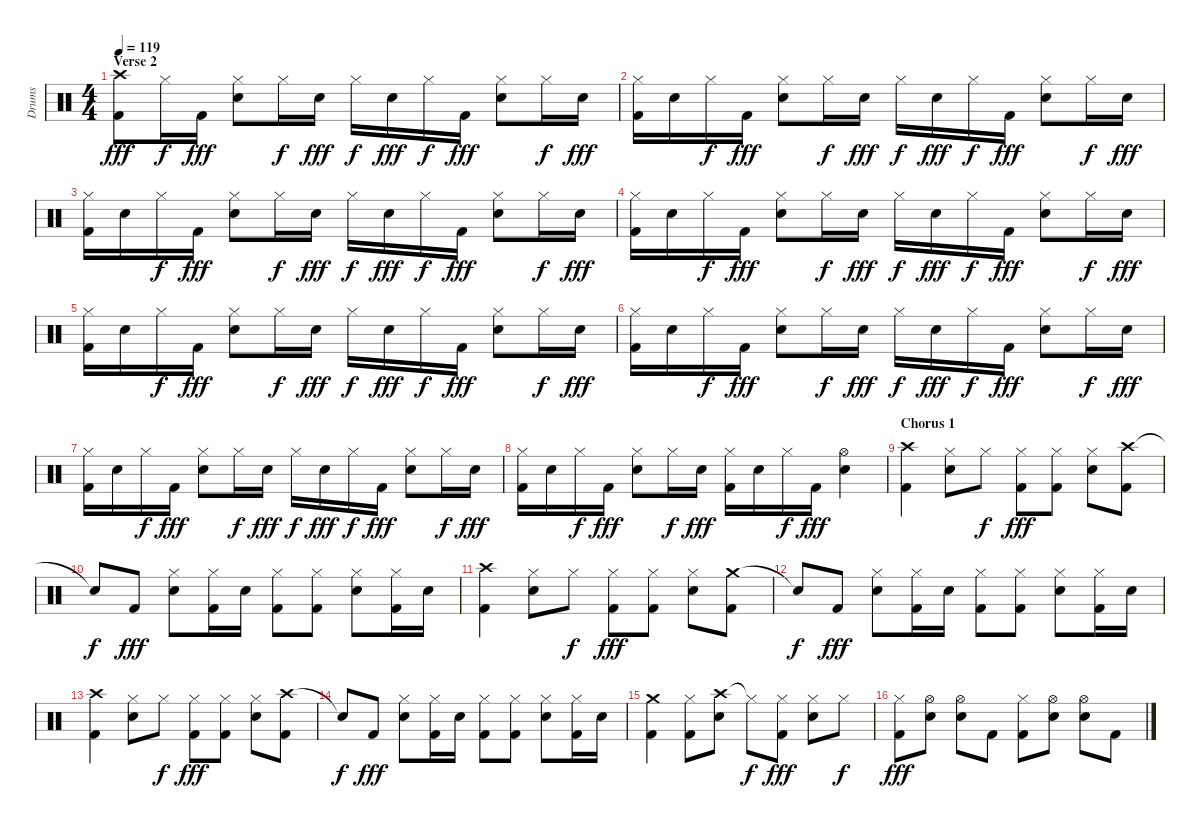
\track ("Drums" "Drums") {instrument percussion}
\staff {score}
\articulation defaults
\ts (4 4)
\section ("" "Verse 2")
\tempo 119
\clef neutral
\ks c
("Crash high (hit)" "Kick (hit) 2").8{dy fff} "Hi-Hat (closed)".16{dy f} "Kick (hit) 2".16{dy fff} ("Hi-Hat (closed)" "Electric Snare (hit)").8 "Hi-Hat (closed)".16{dy f} "Electric Snare (hit)".16{dy fff} "Hi-Hat (closed)".16{dy f} "Electric Snare (hit)".16{dy fff} "Hi-Hat (closed)".16{dy f} "Kick (hit) 2".16{dy fff} ("Hi-Hat (closed)" "Electric Snare (hit)").8 "Hi-Hat (closed)".16{dy f} "Electric Snare (hit)".16{dy fff} |
("Hi-Hat (closed)" "Kick (hit) 2").16 "Electric Snare (hit)".16 "Hi-Hat (closed)".16{dy f} "Kick (hit) 2".16{dy fff} ("Hi-Hat (closed)" "Electric Snare (hit)").8 "Hi-Hat (closed)".16{dy f} "Electric Snare (hit)".16{dy fff} "Hi-Hat (closed)".16{dy f} "Electric Snare (hit)".16{dy fff} "Hi-Hat (closed)".16{dy f} "Kick (hit) 2".16{dy fff} ("Hi-Hat (closed)" "Electric Snare (hit)").8 "Hi-Hat (closed)".16{dy f} "Electric Snare (hit)".16{dy fff} |
("Hi-Hat (closed)" "Kick (hit) 2").16 "Electric Snare (hit)".16 "Hi-Hat (closed)".16{dy f} "Kick (hit) 2".16{dy fff} ("Hi-Hat (closed)" "Electric Snare (hit)").8 "Hi-Hat (closed)".16{dy f} "Electric Snare (hit)".16{dy fff} "Hi-Hat (closed)".16{dy f} "Electric Snare (hit)".16{dy fff} "Hi-Hat (closed)".16{dy f} "Kick (hit) 2".16{dy fff} ("Hi-Hat (closed)" "Electric Snare (hit)").8 "Hi-Hat (closed)".16{dy f} "Electric Snare (hit)".16{dy fff} |
("Hi-Hat (closed)" "Kick (hit) 2").16 "Electric Snare (hit)".16 "Hi-Hat (closed)".16{dy f} "Kick (hit) 2".16{dy fff} ("Hi-Hat (closed)" "Electric Snare (hit)").8 "Hi-Hat (closed)".16{dy f} "Electric Snare (hit)".16{dy fff} "Hi-Hat (closed)".16{dy f} "Electric Snare (hit)".16{dy fff} "Hi-Hat (closed)".16{dy f} "Kick (hit) 2".16{dy fff} ("Hi-Hat (closed)" "Electric Snare (hit)").8 "Hi-Hat (closed)".16{dy f} "Electric Snare (hit)".16{dy fff} |
("Hi-Hat (closed)" "Kick (hit) 2").16 "Electric Snare (hit)".16 "Hi-Hat (closed)".16{dy f} "Kick (hit) 2".16{dy fff} ("Hi-Hat (closed)" "Electric Snare (hit)").8 "Hi-Hat (closed)".16{dy f} "Electric Snare (hit)".16{dy fff} "Hi-Hat (closed)".16{dy f} "Electric Snare (hit)".16{dy fff} "Hi-Hat (closed)".16{dy f} "Kick (hit) 2".16{dy fff} ("Hi-Hat (closed)" "Electric Snare (hit)").8 "Hi-Hat (closed)".16{dy f} "Electric Snare (hit)".16{dy fff} |
("Hi-Hat (closed)" "Kick (hit) 2").16 "Electric Snare (hit)".16 "Hi-Hat (closed)".16{dy f} "Kick (hit) 2".16{dy fff} ("Hi-Hat (closed)" "Electric Snare (hit)").8 "Hi-Hat (closed)".16{dy f} "Electric Snare (hit)".16{dy fff} "Hi-Hat (closed)".16{dy f} "Electric Snare (hit)".16{dy fff} "Hi-Hat (closed)".16{dy f} "Kick (hit) 2".16{dy fff} ("Hi-Hat (closed)" "Electric Snare (hit)").8 "Hi-Hat (closed)".16{dy f} "Electric Snare (hit)".16{dy fff} |
("Hi-Hat (closed)" "Kick (hit) 2").16 "Electric Snare (hit)".16 "Hi-Hat (closed)".16{dy f} "Kick (hit) 2".16{dy fff} ("Hi-Hat (closed)" "Electric Snare (hit)").8 "Hi-Hat (closed)".16{dy f} "Electric Snare (hit)".16{dy fff} "Hi-Hat (closed)".16{dy f} "Electric Snare (hit)".16{dy fff} "Hi-Hat (closed)".16{dy f} "Kick (hit) 2".16{dy fff} ("Hi-Hat (closed)" "Electric Snare (hit)").8 "Hi-Hat (closed)".16{dy f} "Electric Snare (hit)".16{dy fff} |
("Hi-Hat (closed)" "Kick (hit) 2").16 "Electric Snare (hit)".16 "Hi-Hat (closed)".16{dy f} "Kick (hit) 2".16{dy fff} ("Hi-Hat (closed)" "Electric Snare (hit)").8 "Hi-Hat (closed)".16{dy f} "Electric Snare (hit)".16{dy fff} ("Hi-Hat (closed)" "Kick (hit) 2").16 "Electric Snare (hit)".16 "Hi-Hat (closed)".16{dy f} "Kick (hit) 2".16{dy fff} ("Hi-Hat (open)" "Electric Snare (hit)").4 |
\section ("" "Chorus 1")
("Crash high (hit)" "Kick (hit) 2").4 ("Hi-Hat (closed)" "Electric Snare (hit)").8 "Hi-Hat (closed)".8{dy f} ("Hi-Hat (closed)" "Kick (hit) 2").8{dy fff} ("Hi-Hat (closed)" "Kick (hit) 2").8 ("Hi-Hat (closed)" "Electric Snare (hit)").8 ("Crash high (hit)" "Kick (hit) 2").8 |
"Snare (hit)"{t}.8{dy f} "Kick (hit) 2".8{dy fff} ("Hi-Hat (closed)" "Electric Snare (hit)").8 ("Hi-Hat (closed)" "Kick (hit) 2").16 "Electric Snare (hit)".16 ("Hi-Hat (closed)" "Kick (hit) 2").8 ("Hi-Hat (closed)" "Kick (hit) 2").8 ("Hi-Hat (closed)" "Electric Snare (hit)").8 ("Hi-Hat (closed)" "Kick (hit) 2").16 "Electric Snare (hit)".16 |
("Crash high (hit)" "Kick (hit) 2").4 ("Hi-Hat (closed)" "Electric Snare (hit)").8 "Hi-Hat (closed)".8{dy f} ("Hi-Hat (closed)" "Kick (hit) 2").8{dy fff} ("Hi-Hat (closed)" "Kick (hit) 2").8 ("Hi-Hat (closed)" "Electric Snare (hit)").8 ("Crash medium (hit)" "Kick (hit) 2").8 |
"Snare (hit)"{t}.8{dy f} "Kick (hit) 2".8{dy fff} ("Hi-Hat (closed)" "Electric Snare (hit)").8 ("Hi-Hat (closed)" "Kick (hit) 2").16 "Electric Snare (hit)".16 ("Hi-Hat (closed)" "Kick (hit) 2").8 ("Hi-Hat (closed)" "Kick (hit) 2").8 ("Hi-Hat (closed)" "Electric Snare (hit)").8 ("Hi-Hat (closed)" "Kick (hit) 2").16 "Electric Snare (hit)".16 |
("Crash high (hit)" "Kick (hit) 2").4 ("Hi-Hat (closed)" "Electric Snare (hit)").8 "Hi-Hat (closed)".8{dy f} ("Hi-Hat (closed)" "Kick (hit) 2").8{dy fff} ("Hi-Hat (closed)" "Kick (hit) 2").8 ("Hi-Hat (closed)" "Electric Snare (hit)").8 ("Crash high (hit)" "Kick (hit) 2").8 |
"Snare (hit)"{t}.8{dy f} "Kick (hit) 2".8{dy fff} ("Hi-Hat (closed)" "Electric Snare (hit)").8 ("Hi-Hat (closed)" "Kick (hit) 2").16 "Electric Snare (hit)".16 ("Hi-Hat (closed)" "Kick (hit) 2").8 ("Hi-Hat (closed)" "Kick (hit) 2").8 ("Hi-Hat (closed)" "Electric Snare (hit)").8 ("Hi-Hat (closed)" "Kick (hit) 2").16 "Electric Snare (hit)".16 |
("Crash medium (hit)" "Kick (hit) 2").4 ("Hi-Hat (closed)" "Kick (hit) 2").8 ("Crash high (hit)" "Electric Snare (hit)").8 "Hi-Hat (closed)"{t}.8{dy f} ("Hi-Hat (closed)" "Kick (hit) 2").8{dy fff} ("Hi-Hat (closed)" "Electric Snare (hit)").8 "Hi-Hat (closed)".8{dy f} |
("Hi-Hat (closed)" "Kick (hit) 2").8{dy fff} ("Hi-Hat (open)" "Electric Snare (hit)").8 ("Hi-Hat (open)" "Electric Snare (hit)").8 "Kick (hit) 2".8 ("Hi-Hat (closed)" "Kick (hit) 2").8 ("Hi-Hat (open)" "Electric Snare (hit)").8 ("Hi-Hat (open)" "Electric Snare (hit)").8 "Kick (hit) 2".8
